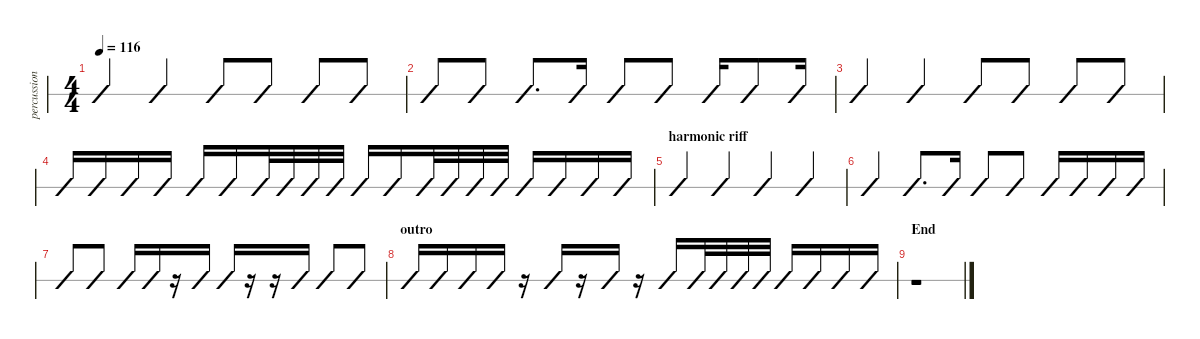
\defaultSystemsLayout 4
\hideDynamics
\bracketExtendMode nobrackets
\track ("Drums" "percussion") {instrument percussion}
\staff {slash}
\articulation defaults
\voice
\ts (4 4)
\tempo 116
\clef neutral
\ks c
("Crash high (hit)" "Kick (hit) 2").4{dy f} ("Crash high (hit)" "Snare (hit) 2").4 ("Crash high (hit)" "Kick (hit) 2").8 "Kick (hit) 2".8 ("Crash high (hit)" "Snare (hit) 2").8 "Kick (hit) 2".8 |
"Crash high (hit)".8 "Kick (hit) 2".8 ("Crash high (hit)" "Snare (hit) 2").8{d} "Snare (hit) 2".16 "Crash high (hit)".8 "Kick (hit) 2".8 ("Crash high (hit)" "Snare (hit) 2").16 "Kick (hit) 2".8 "Kick (hit) 2".16 |
("Crash high (hit)" "Kick (hit) 2").4 ("Crash high (hit)" "Snare (hit) 2").4 "Crash high (hit)".8 "Kick (hit) 2".8 ("Crash high (hit)" "Snare (hit) 2").8 ("Crash medium (hit)" "Kick (hit) 2").8 |
"Crash high (hit)".16 "Very Low Tom (hit)".16 "Low Floor Tom (hit)".16 "Kick (hit) 2".16 ("Crash high (hit)" "Snare (hit) 2").16 "Kick (hit) 2".16 "Snare (hit) 2"{g}.32{dy mf} "Snare (hit) 2"{g}.32 "Snare (hit) 2"{g}.32 "Snare (hit) 2"{g}.32 "Snare (hit) 2".16{dy f} "Snare (hit) 2".16 "Snare (hit) 2"{g}.32{dy mf} "Snare (hit) 2"{g}.32 "Snare (hit) 2"{g}.32 "Snare (hit) 2"{g}.32 "Snare (hit) 2".16{dy f} "Snare (hit) 2".16 "Snare (hit) 2".16 "Snare (hit) 2".16 |
\section ("" "harmonic riff")
("Crash medium (hit)" "Kick (hit) 2" "Crash high (hit)").4 ("Crash medium (hit)" "Kick (hit) 2" "Snare (hit) 2").4 ("Crash medium (hit)" "Kick (hit) 2").4 ("Crash medium (hit)" "Kick (hit) 2" "Snare (hit) 2").4 |
("Crash medium (hit)" "Kick (hit) 2").4 ("Crash medium (hit)" "Kick (hit) 2" "Snare (hit) 2").8{d} "Kick (hit) 2".16 ("Crash medium (hit)" "Kick (hit) 2").8 "Kick (hit) 2".8 ("Crash medium (hit)" "Snare (hit) 2").16 "Kick (hit) 2".16 "Snare (hit) 2".16 "Snare (hit) 2".16 |
("China (hit)" "Kick (hit) 2").8 "Kick (hit) 2".8 ("China (hit)" "Snare (hit) 2").16 "Kick (hit) 2".16 r.16 "Kick (hit) 2".16 "China (hit)".16 r.16 r.16 "Kick (hit) 2".16 ("China (hit)" "Kick (hit) 2" "Snare (hit) 2").8 "Kick (hit) 2".8 |
\section ("" "outro")
"Snare (hit) 2".16 "Very Low Tom (hit)".16 "Kick (hit) 2".16 "Snare (hit) 2".16 r.16 ("Crash medium (hit)" "Kick (hit) 2").16 r.16 ("Hi-Hat (open)" "Kick (hit) 2").16 r.16 "Kick (hit) 2".16 "Very Low Tom (hit)".32 "Very Low Tom (hit)".32 "Low Floor Tom (hit)".32 "Low Floor Tom (hit)".32 ("Crash medium (hit)" "Snare (hit) 2").16 "Kick (hit) 2".16 "Snare (hit) 2".16 "Snare (hit) 2".16 |
\section ("" "End")
r.1
\voice
\clef neutral
\ottava regular
\simile none
\ks c
r.4{dy mf} r.4 r.4 r.4 |
r.4 r.4 r.4 r.4 |
r.4 r.4 r.4 r.4 |
r.4 r.4 r.4 r.4 |
r.4 r.4 r.4 r.4 |
r.4 r.4 r.4 r.4 |
r.4 r.4 r.4 r.4 |
r.4 r.4 r.4 r.4 |
r.4 r.4 r.4 r.4
